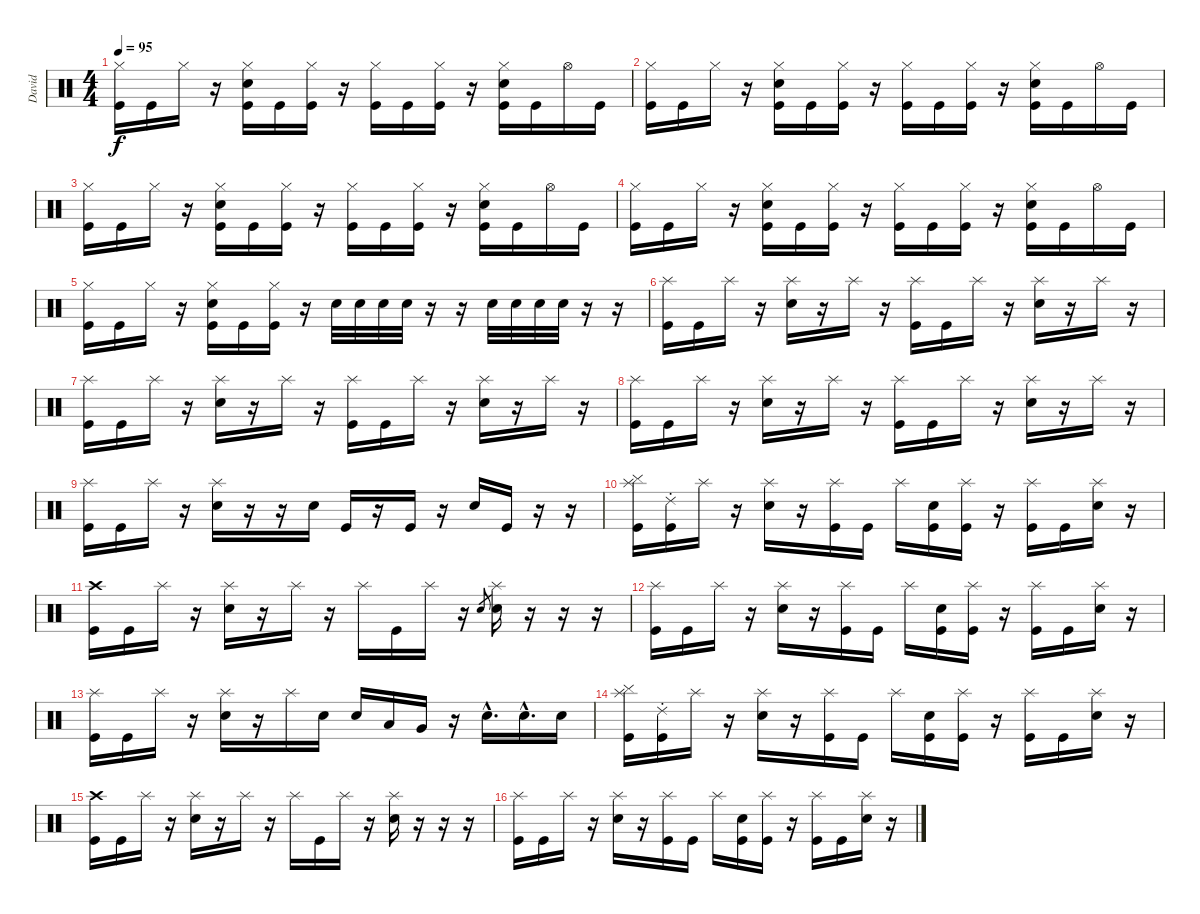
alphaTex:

\track ("David" "David") {instrument percussion}
\staff {score}
\articulation defaults
\ts (4 4)
\tempo 95
\clef neutral
\ks c
("Hi-Hat (closed)" "Kick (hit)").16{dy f} "Kick (hit)".16 "Hi-Hat (closed)".16 r.16 ("Hi-Hat (closed)" "Electric Snare (hit)" "Kick (hit)").16 "Kick (hit)".16 ("Hi-Hat (closed)" "Kick (hit)").16 r.16 ("Hi-Hat (closed)" "Kick (hit)").16 "Kick (hit)".16 ("Hi-Hat (closed)" "Kick (hit)").16 r.16 ("Hi-Hat (closed)" "Electric Snare (hit)" "Kick (hit)").16 "Kick (hit)".16 "Hi-Hat (open)".16 "Kick (hit)".16 |
("Hi-Hat (closed)" "Kick (hit)").16 "Kick (hit)".16 "Hi-Hat (closed)".16 r.16 ("Hi-Hat (closed)" "Electric Snare (hit)" "Kick (hit)").16 "Kick (hit)".16 ("Hi-Hat (closed)" "Kick (hit)").16 r.16 ("Hi-Hat (closed)" "Kick (hit)").16 "Kick (hit)".16 ("Hi-Hat (closed)" "Kick (hit)").16 r.16 ("Hi-Hat (closed)" "Electric Snare (hit)" "Kick (hit)").16 "Kick (hit)".16 "Hi-Hat (open)".16 "Kick (hit)".16 |
("Hi-Hat (closed)" "Kick (hit)").16 "Kick (hit)".16 "Hi-Hat (closed)".16 r.16 ("Hi-Hat (closed)" "Electric Snare (hit)" "Kick (hit)").16 "Kick (hit)".16 ("Hi-Hat (closed)" "Kick (hit)").16 r.16 ("Hi-Hat (closed)" "Kick (hit)").16 "Kick (hit)".16 ("Hi-Hat (closed)" "Kick (hit)").16 r.16 ("Hi-Hat (closed)" "Electric Snare (hit)" "Kick (hit)").16 "Kick (hit)".16 "Hi-Hat (open)".16 "Kick (hit)".16 |
("Hi-Hat (closed)" "Kick (hit)").16 "Kick (hit)".16 "Hi-Hat (closed)".16 r.16 ("Hi-Hat (closed)" "Electric Snare (hit)" "Kick (hit)").16 "Kick (hit)".16 ("Hi-Hat (closed)" "Kick (hit)").16 r.16 ("Hi-Hat (closed)" "Kick (hit)").16 "Kick (hit)".16 ("Hi-Hat (closed)" "Kick (hit)").16 r.16 ("Hi-Hat (closed)" "Electric Snare (hit)" "Kick (hit)").16 "Kick (hit)".16 "Hi-Hat (open)".16 "Kick (hit)".16 |
("Hi-Hat (closed)" "Kick (hit)").16 "Kick (hit)".16 "Hi-Hat (closed)".16 r.16 ("Hi-Hat (closed)" "Electric Snare (hit)" "Kick (hit)").16 "Kick (hit)".16 ("Hi-Hat (closed)" "Kick (hit)").16 r.16 "Electric Snare (hit)".32 "Electric Snare (hit)".32 "Electric Snare (hit)".32 "Electric Snare (hit)".32 r.16 r.16 "Electric Snare (hit)".32 "Electric Snare (hit)".32 "Electric Snare (hit)".32 "Electric Snare (hit)".32 r.16 r.16 |
("Splash (hit)" "Kick (hit)").16 "Kick (hit)".16 "Splash (hit)".16 r.16 ("Splash (hit)" "Electric Snare (hit)").16 r.16 "Splash (hit)".16 r.16 ("Splash (hit)" "Kick (hit)").16 "Kick (hit)".16 "Splash (hit)".16 r.16 ("Splash (hit)" "Electric Snare (hit)").16 r.16 "Splash (hit)".16 r.16 |
("Splash (hit)" "Kick (hit)").16 "Kick (hit)".16 "Splash (hit)".16 r.16 ("Splash (hit)" "Electric Snare (hit)").16 r.16 "Splash (hit)".16 r.16 ("Splash (hit)" "Kick (hit)").16 "Kick (hit)".16 "Splash (hit)".16 r.16 ("Splash (hit)" "Electric Snare (hit)").16 r.16 "Splash (hit)".16 r.16 |
("Splash (hit)" "Kick (hit)").16 "Kick (hit)".16 "Splash (hit)".16 r.16 ("Splash (hit)" "Electric Snare (hit)").16 r.16 "Splash (hit)".16 r.16 ("Splash (hit)" "Kick (hit)").16 "Kick (hit)".16 "Splash (hit)".16 r.16 ("Splash (hit)" "Electric Snare (hit)").16 r.16 "Splash (hit)".16 r.16 |
("Splash (hit)" "Kick (hit)").16 "Kick (hit)".16 "Splash (hit)".16 r.16 ("Splash (hit)" "Electric Snare (hit)").16 r.16 r.16 "Electric Snare (hit)".16 "Kick (hit)".16 r.16 "Kick (hit)".16 r.16 "Electric Snare (hit)".16 "Kick (hit)".16 r.16 r.16 |
("Splash (hit)" "Cymbal (hit)" "Kick (hit)").16 ("Ride (choke) 2" "Kick (hit)").16 "Splash (hit)".16 r.16 ("Splash (hit)" "Electric Snare (hit)").16 r.16 ("Splash (hit)" "Kick (hit)").16 "Kick (hit)".16 "Splash (hit)".16 ("Electric Snare (hit)" "Kick (hit)").16 ("Splash (hit)" "Kick (hit)").16 r.16 ("Splash (hit)" "Kick (hit)").16 "Kick (hit)".16 ("Splash (hit)" "Electric Snare (hit)").16 r.16 |
("Crash high (hit)" "Kick (hit)").16 "Kick (hit)".16 "Splash (hit)".16 r.16 ("Splash (hit)" "Electric Snare (hit)").16 r.16 "Splash (hit)".16 r.16 "Splash (hit)".16 "Kick (hit)".16 "Splash (hit)".16 r.16 "Electric Snare (hit)".8{gr} ("Splash (hit)" "Electric Snare (hit)").16 r.16 r.16 r.16 |
("Splash (hit)" "Kick (hit)").16 "Kick (hit)".16 "Splash (hit)".16 r.16 ("Splash (hit)" "Electric Snare (hit)").16 r.16 ("Splash (hit)" "Kick (hit)").16 "Kick (hit)".16 "Splash (hit)".16 ("Electric Snare (hit)" "Kick (hit)").16 ("Splash (hit)" "Kick (hit)").16 r.16 ("Splash (hit)" "Kick (hit)").16 "Kick (hit)".16 ("Splash (hit)" "Electric Snare (hit)").16 r.16 |
("Splash (hit)" "Kick (hit)").16 "Kick (hit)".16 "Splash (hit)".16 r.16 ("Splash (hit)" "Electric Snare (hit)").16 r.16 "Splash (hit)".16 "Electric Snare (hit)".16 "Electric Snare (hit)".16 "Low Tom (hit)".16 "Very Low Tom (hit)".16 r.16 "Electric Snare (hit)"{hac}.16{d} "Electric Snare (hit)"{hac}.16{d} "Electric Snare (hit)".16 |
("Splash (hit)" "Cymbal (hit)" "Kick (hit)").16 ("Ride (choke) 2" "Kick (hit)").16 "Splash (hit)".16 r.16 ("Splash (hit)" "Electric Snare (hit)").16 r.16 ("Splash (hit)" "Kick (hit)").16 "Kick (hit)".16 "Splash (hit)".16 ("Electric Snare (hit)" "Kick (hit)").16 ("Splash (hit)" "Kick (hit)").16 r.16 ("Splash (hit)" "Kick (hit)").16 "Kick (hit)".16 ("Splash (hit)" "Electric Snare (hit)").16 r.16 |
("Crash high (hit)" "Kick (hit)").16 "Kick (hit)".16 "Splash (hit)".16 r.16 ("Splash (hit)" "Electric Snare (hit)").16 r.16 "Splash (hit)".16 r.16 "Splash (hit)".16 "Kick (hit)".16 "Splash (hit)".16 r.16 ("Splash (hit)" "Electric Snare (hit)").16 r.16 r.16 r.16 |
("Splash (hit)" "Kick (hit)").16 "Kick (hit)".16 "Splash (hit)".16 r.16 ("Splash (hit)" "Electric Snare (hit)").16 r.16 ("Splash (hit)" "Kick (hit)").16 "Kick (hit)".16 "Splash (hit)".16 ("Electric Snare (hit)" "Kick (hit)").16 ("Splash (hit)" "Kick (hit)").16 r.16 ("Splash (hit)" "Kick (hit)").16 "Kick (hit)".16 ("Splash (hit)" "Electric Snare (hit)").16 r.16
